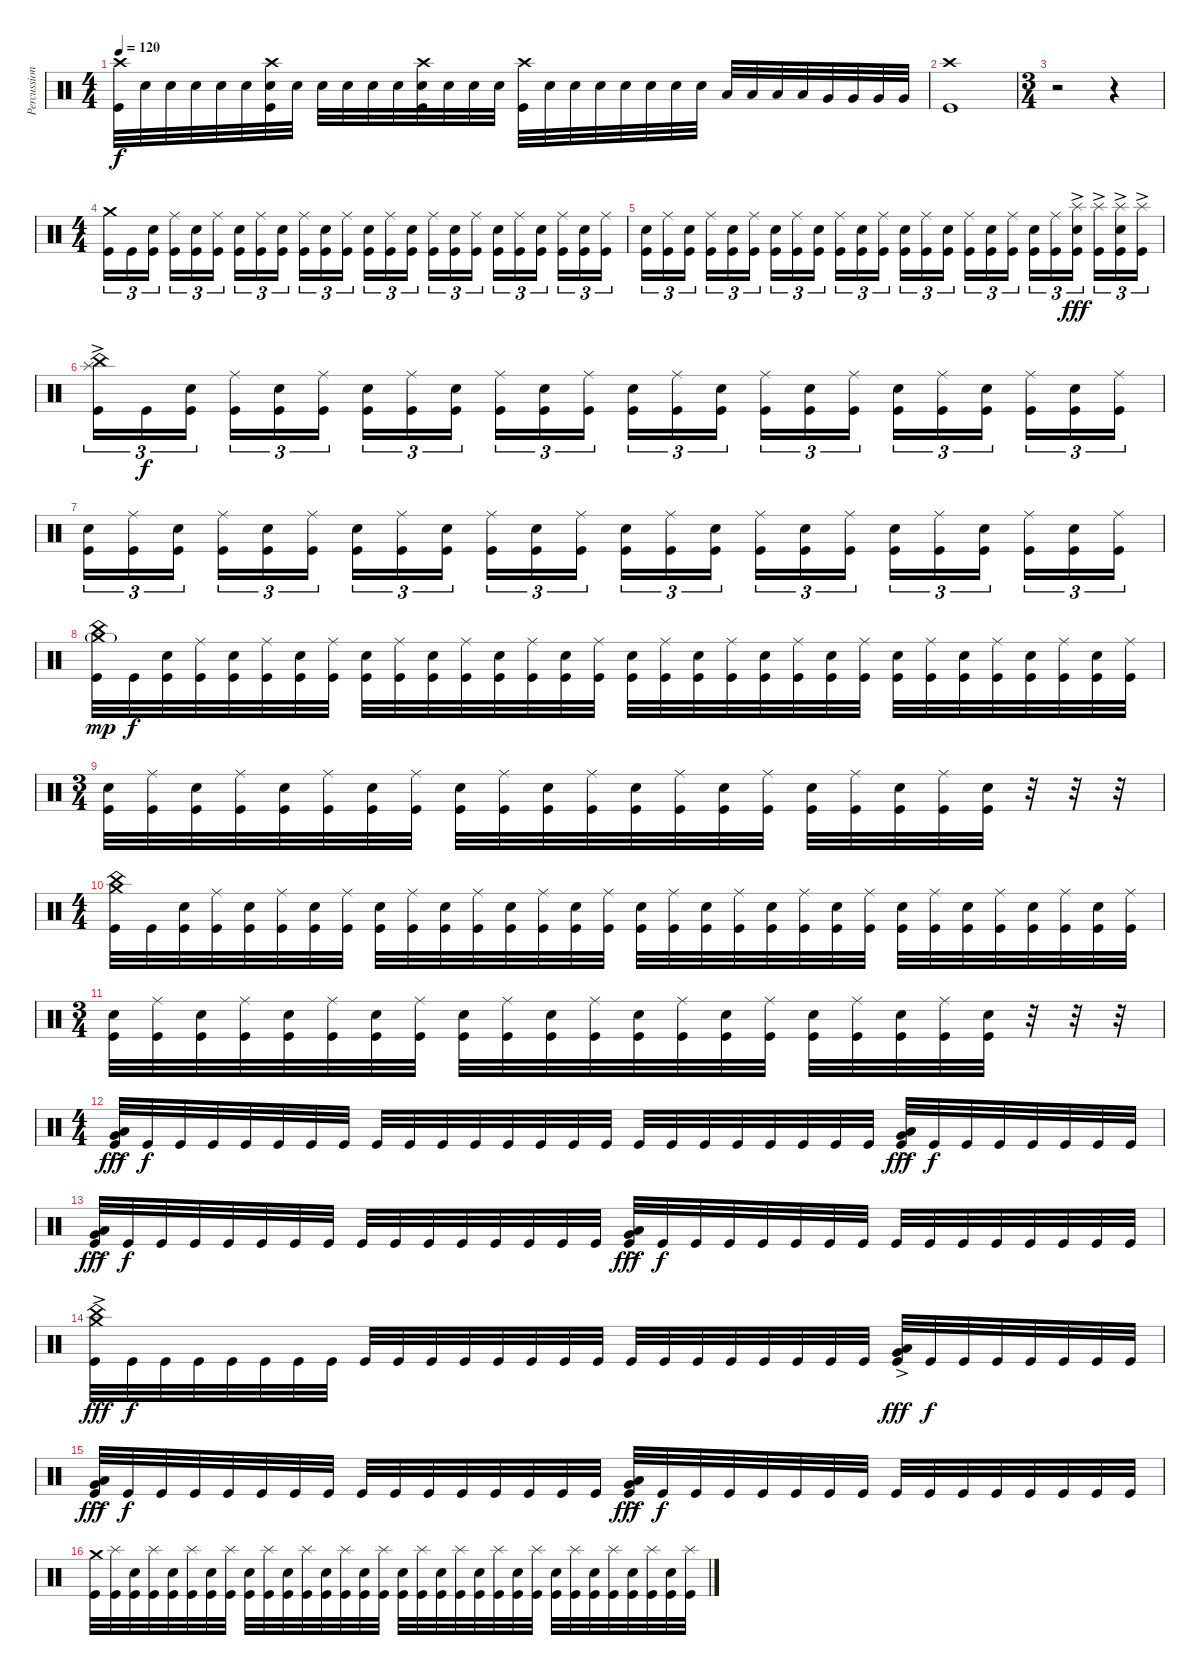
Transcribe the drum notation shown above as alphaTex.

\track ("Percussion" "Percussion") {instrument percussion}
\staff {score}
\articulation defaults
\ts (4 4)
\tempo 120
\clef neutral
\ks c
("Crash high (hit)" "Kick (hit)").32{dy f} "Electric Snare (hit)".32 "Electric Snare (hit)".32 "Electric Snare (hit)".32 "Electric Snare (hit)".32 "Electric Snare (hit)".32 ("Crash high (hit)" "Electric Snare (hit)" "Kick (hit)").32 "Electric Snare (hit)".32 "Electric Snare (hit)".32 "Electric Snare (hit)".32 "Electric Snare (hit)".32 "Electric Snare (hit)".32 ("Crash high (hit)" "Electric Snare (hit)" "Kick (hit)").32 "Electric Snare (hit)".32 "Electric Snare (hit)".32 "Electric Snare (hit)".32 ("Crash high (hit)" "Kick (hit)").32 "Electric Snare (hit)".32 "Electric Snare (hit)".32 "Electric Snare (hit)".32 "Electric Snare (hit)".32 "Electric Snare (hit)".32 "Electric Snare (hit)".32 "Electric Snare (hit)".32 "Low Tom (hit)".32 "Low Tom (hit)".32 "Low Tom (hit)".32 "Low Tom (hit)".32 "Very Low Tom (hit)".32 "Very Low Tom (hit)".32 "Very Low Tom (hit)".32 "Very Low Tom (hit)".32 |
("Crash high (hit)" "Kick (hit)").1 |
\ts (3 4)
r.2 r.4 |
\ts (4 4)
("Crash medium (hit)" "Kick (hit)").16{tu (3 2)} "Kick (hit)".16{tu (3 2)} ("Electric Snare (hit)" "Kick (hit)").16{tu (3 2)} ("Ride (middle)" "Kick (hit)").16{tu (3 2)} ("Electric Snare (hit)" "Kick (hit)").16{tu (3 2)} ("Ride (middle)" "Kick (hit)").16{tu (3 2)} ("Electric Snare (hit)" "Kick (hit)").16{tu (3 2)} ("Ride (middle)" "Kick (hit)").16{tu (3 2)} ("Electric Snare (hit)" "Kick (hit)").16{tu (3 2)} ("Ride (middle)" "Kick (hit)").16{tu (3 2)} ("Electric Snare (hit)" "Kick (hit)").16{tu (3 2)} ("Ride (middle)" "Kick (hit)").16{tu (3 2)} ("Electric Snare (hit)" "Kick (hit)").16{tu (3 2)} ("Ride (middle)" "Kick (hit)").16{tu (3 2)} ("Electric Snare (hit)" "Kick (hit)").16{tu (3 2)} ("Ride (middle)" "Kick (hit)").16{tu (3 2)} ("Electric Snare (hit)" "Kick (hit)").16{tu (3 2)} ("Ride (middle)" "Kick (hit)").16{tu (3 2)} ("Electric Snare (hit)" "Kick (hit)").16{tu (3 2)} ("Ride (middle)" "Kick (hit)").16{tu (3 2)} ("Electric Snare (hit)" "Kick (hit)").16{tu (3 2)} ("Ride (middle)" "Kick (hit)").16{tu (3 2)} ("Electric Snare (hit)" "Kick (hit)").16{tu (3 2)} ("Ride (middle)" "Kick (hit)").16{tu (3 2)} |
("Electric Snare (hit)" "Kick (hit)").16{tu (3 2)} ("Ride (middle)" "Kick (hit)").16{tu (3 2)} ("Electric Snare (hit)" "Kick (hit)").16{tu (3 2)} ("Ride (middle)" "Kick (hit)").16{tu (3 2)} ("Electric Snare (hit)" "Kick (hit)").16{tu (3 2)} ("Ride (middle)" "Kick (hit)").16{tu (3 2)} ("Electric Snare (hit)" "Kick (hit)").16{tu (3 2)} ("Ride (middle)" "Kick (hit)").16{tu (3 2)} ("Electric Snare (hit)" "Kick (hit)").16{tu (3 2)} ("Ride (middle)" "Kick (hit)").16{tu (3 2)} ("Electric Snare (hit)" "Kick (hit)").16{tu (3 2)} ("Ride (middle)" "Kick (hit)").16{tu (3 2)} ("Electric Snare (hit)" "Kick (hit)").16{tu (3 2)} ("Ride (middle)" "Kick (hit)").16{tu (3 2)} ("Electric Snare (hit)" "Kick (hit)").16{tu (3 2)} ("Ride (middle)" "Kick (hit)").16{tu (3 2)} ("Electric Snare (hit)" "Kick (hit)").16{tu (3 2)} ("Ride (middle)" "Kick (hit)").16{tu (3 2)} ("Electric Snare (hit)" "Kick (hit)").16{tu (3 2)} ("Ride (middle)" "Kick (hit)").16{tu (3 2)} ("Splash (hit)"{ac} "Electric Snare (hit)" "Kick (hit)").16{tu (3 2) dy fff} ("Splash (hit)"{ac} "Kick (hit)").16{tu (3 2)} ("Splash (hit)"{ac} "Electric Snare (hit)" "Kick (hit)").16{tu (3 2)} ("Splash (hit)"{ac} "Kick (hit)").16{tu (3 2)} |
("China (hit)"{ac} "Splash (hit)"{ac} "Kick (hit)").16{tu (3 2)} "Kick (hit)".16{tu (3 2) dy f} ("Electric Snare (hit)" "Kick (hit)").16{tu (3 2)} ("Ride (middle)" "Kick (hit)").16{tu (3 2)} ("Electric Snare (hit)" "Kick (hit)").16{tu (3 2)} ("Ride (middle)" "Kick (hit)").16{tu (3 2)} ("Electric Snare (hit)" "Kick (hit)").16{tu (3 2)} ("Ride (middle)" "Kick (hit)").16{tu (3 2)} ("Electric Snare (hit)" "Kick (hit)").16{tu (3 2)} ("Ride (middle)" "Kick (hit)").16{tu (3 2)} ("Electric Snare (hit)" "Kick (hit)").16{tu (3 2)} ("Ride (middle)" "Kick (hit)").16{tu (3 2)} ("Electric Snare (hit)" "Kick (hit)").16{tu (3 2)} ("Ride (middle)" "Kick (hit)").16{tu (3 2)} ("Electric Snare (hit)" "Kick (hit)").16{tu (3 2)} ("Ride (middle)" "Kick (hit)").16{tu (3 2)} ("Electric Snare (hit)" "Kick (hit)").16{tu (3 2)} ("Ride (middle)" "Kick (hit)").16{tu (3 2)} ("Electric Snare (hit)" "Kick (hit)").16{tu (3 2)} ("Ride (middle)" "Kick (hit)").16{tu (3 2)} ("Electric Snare (hit)" "Kick (hit)").16{tu (3 2)} ("Ride (middle)" "Kick (hit)").16{tu (3 2)} ("Electric Snare (hit)" "Kick (hit)").16{tu (3 2)} ("Ride (middle)" "Kick (hit)").16{tu (3 2)} |
("Electric Snare (hit)" "Kick (hit)").16{tu (3 2)} ("Ride (middle)" "Kick (hit)").16{tu (3 2)} ("Electric Snare (hit)" "Kick (hit)").16{tu (3 2)} ("Ride (middle)" "Kick (hit)").16{tu (3 2)} ("Electric Snare (hit)" "Kick (hit)").16{tu (3 2)} ("Ride (middle)" "Kick (hit)").16{tu (3 2)} ("Electric Snare (hit)" "Kick (hit)").16{tu (3 2)} ("Ride (middle)" "Kick (hit)").16{tu (3 2)} ("Electric Snare (hit)" "Kick (hit)").16{tu (3 2)} ("Ride (middle)" "Kick (hit)").16{tu (3 2)} ("Electric Snare (hit)" "Kick (hit)").16{tu (3 2)} ("Ride (middle)" "Kick (hit)").16{tu (3 2)} ("Electric Snare (hit)" "Kick (hit)").16{tu (3 2)} ("Ride (middle)" "Kick (hit)").16{tu (3 2)} ("Electric Snare (hit)" "Kick (hit)").16{tu (3 2)} ("Ride (middle)" "Kick (hit)").16{tu (3 2)} ("Electric Snare (hit)" "Kick (hit)").16{tu (3 2)} ("Ride (middle)" "Kick (hit)").16{tu (3 2)} ("Electric Snare (hit)" "Kick (hit)").16{tu (3 2)} ("Ride (middle)" "Kick (hit)").16{tu (3 2)} ("Electric Snare (hit)" "Kick (hit)").16{tu (3 2)} ("Ride (middle)" "Kick (hit)").16{tu (3 2)} ("Electric Snare (hit)" "Kick (hit)").16{tu (3 2)} ("Ride (middle)" "Kick (hit)").16{tu (3 2)} |
("Crash medium (hit)"{g} "China (hit)" "Kick (hit)").32{dy mp} "Kick (hit)".32{dy f} ("Electric Snare (hit)" "Kick (hit)").32 ("Ride (middle)" "Kick (hit)").32 ("Electric Snare (hit)" "Kick (hit)").32 ("Ride (middle)" "Kick (hit)").32 ("Electric Snare (hit)" "Kick (hit)").32 ("Ride (middle)" "Kick (hit)").32 ("Electric Snare (hit)" "Kick (hit)").32 ("Ride (middle)" "Kick (hit)").32 ("Electric Snare (hit)" "Kick (hit)").32 ("Ride (middle)" "Kick (hit)").32 ("Electric Snare (hit)" "Kick (hit)").32 ("Ride (middle)" "Kick (hit)").32 ("Electric Snare (hit)" "Kick (hit)").32 ("Ride (middle)" "Kick (hit)").32 ("Electric Snare (hit)" "Kick (hit)").32 ("Ride (middle)" "Kick (hit)").32 ("Electric Snare (hit)" "Kick (hit)").32 ("Ride (middle)" "Kick (hit)").32 ("Electric Snare (hit)" "Kick (hit)").32 ("Ride (middle)" "Kick (hit)").32 ("Electric Snare (hit)" "Kick (hit)").32 ("Ride (middle)" "Kick (hit)").32 ("Electric Snare (hit)" "Kick (hit)").32 ("Ride (middle)" "Kick (hit)").32 ("Electric Snare (hit)" "Kick (hit)").32 ("Ride (middle)" "Kick (hit)").32 ("Electric Snare (hit)" "Kick (hit)").32 ("Ride (middle)" "Kick (hit)").32 ("Electric Snare (hit)" "Kick (hit)").32 ("Ride (middle)" "Kick (hit)").32 |
\ts (3 4)
("Electric Snare (hit)" "Kick (hit)").32 ("Ride (middle)" "Kick (hit)").32 ("Electric Snare (hit)" "Kick (hit)").32 ("Ride (middle)" "Kick (hit)").32 ("Electric Snare (hit)" "Kick (hit)").32 ("Ride (middle)" "Kick (hit)").32 ("Electric Snare (hit)" "Kick (hit)").32 ("Ride (middle)" "Kick (hit)").32 ("Electric Snare (hit)" "Kick (hit)").32 ("Ride (middle)" "Kick (hit)").32 ("Electric Snare (hit)" "Kick (hit)").32 ("Ride (middle)" "Kick (hit)").32 ("Electric Snare (hit)" "Kick (hit)").32 ("Ride (middle)" "Kick (hit)").32 ("Electric Snare (hit)" "Kick (hit)").32 ("Ride (middle)" "Kick (hit)").32 ("Electric Snare (hit)" "Kick (hit)").32 ("Ride (middle)" "Kick (hit)").32 ("Electric Snare (hit)" "Kick (hit)").32 ("Ride (middle)" "Kick (hit)").32 ("Electric Snare (hit)" "Kick (hit)").32 r.32 r.32 r.32 |
\ts (4 4)
("Crash medium (hit)" "China (hit)" "Kick (hit)").32 "Kick (hit)".32 ("Electric Snare (hit)" "Kick (hit)").32 ("Ride (middle)" "Kick (hit)").32 ("Electric Snare (hit)" "Kick (hit)").32 ("Ride (middle)" "Kick (hit)").32 ("Electric Snare (hit)" "Kick (hit)").32 ("Ride (middle)" "Kick (hit)").32 ("Electric Snare (hit)" "Kick (hit)").32 ("Ride (middle)" "Kick (hit)").32 ("Electric Snare (hit)" "Kick (hit)").32 ("Ride (middle)" "Kick (hit)").32 ("Electric Snare (hit)" "Kick (hit)").32 ("Ride (middle)" "Kick (hit)").32 ("Electric Snare (hit)" "Kick (hit)").32 ("Ride (middle)" "Kick (hit)").32 ("Electric Snare (hit)" "Kick (hit)").32 ("Ride (middle)" "Kick (hit)").32 ("Electric Snare (hit)" "Kick (hit)").32 ("Ride (middle)" "Kick (hit)").32 ("Electric Snare (hit)" "Kick (hit)").32 ("Ride (middle)" "Kick (hit)").32 ("Electric Snare (hit)" "Kick (hit)").32 ("Ride (middle)" "Kick (hit)").32 ("Electric Snare (hit)" "Kick (hit)").32 ("Ride (middle)" "Kick (hit)").32 ("Electric Snare (hit)" "Kick (hit)").32 ("Ride (middle)" "Kick (hit)").32 ("Electric Snare (hit)" "Kick (hit)").32 ("Ride (middle)" "Kick (hit)").32 ("Electric Snare (hit)" "Kick (hit)").32 ("Ride (middle)" "Kick (hit)").32 |
\ts (3 4)
("Electric Snare (hit)" "Kick (hit)").32 ("Ride (middle)" "Kick (hit)").32 ("Electric Snare (hit)" "Kick (hit)").32 ("Ride (middle)" "Kick (hit)").32 ("Electric Snare (hit)" "Kick (hit)").32 ("Ride (middle)" "Kick (hit)").32 ("Electric Snare (hit)" "Kick (hit)").32 ("Ride (middle)" "Kick (hit)").32 ("Electric Snare (hit)" "Kick (hit)").32 ("Ride (middle)" "Kick (hit)").32 ("Electric Snare (hit)" "Kick (hit)").32 ("Ride (middle)" "Kick (hit)").32 ("Electric Snare (hit)" "Kick (hit)").32 ("Ride (middle)" "Kick (hit)").32 ("Electric Snare (hit)" "Kick (hit)").32 ("Ride (middle)" "Kick (hit)").32 ("Electric Snare (hit)" "Kick (hit)").32 ("Ride (middle)" "Kick (hit)").32 ("Electric Snare (hit)" "Kick (hit)").32 ("Ride (middle)" "Kick (hit)").32 ("Electric Snare (hit)" "Kick (hit)").32 r.32 r.32 r.32 |
\ts (4 4)
("Low Floor Tom (hit)"{ac} "Very Low Tom (hit)"{ac} "Kick (hit)"{ac}).32{dy fff} "Kick (hit)".32{dy f} "Kick (hit)".32 "Kick (hit)".32 "Kick (hit)".32 "Kick (hit)".32 "Kick (hit)".32 "Kick (hit)".32 "Kick (hit)".32 "Kick (hit)".32 "Kick (hit)".32 "Kick (hit)".32 "Kick (hit)".32 "Kick (hit)".32 "Kick (hit)".32 "Kick (hit)".32 "Kick (hit)".32 "Kick (hit)".32 "Kick (hit)".32 "Kick (hit)".32 "Kick (hit)".32 "Kick (hit)".32 "Kick (hit)".32 "Kick (hit)".32 ("Low Floor Tom (hit)"{ac} "Very Low Tom (hit)"{ac} "Kick (hit)"{ac}).32{dy fff} "Kick (hit)".32{dy f} "Kick (hit)".32 "Kick (hit)".32 "Kick (hit)".32 "Kick (hit)".32 "Kick (hit)".32 "Kick (hit)".32 |
("Low Floor Tom (hit)"{ac} "Very Low Tom (hit)"{ac} "Kick (hit)"{ac}).32{dy fff} "Kick (hit)".32{dy f} "Kick (hit)".32 "Kick (hit)".32 "Kick (hit)".32 "Kick (hit)".32 "Kick (hit)".32 "Kick (hit)".32 "Kick (hit)".32 "Kick (hit)".32 "Kick (hit)".32 "Kick (hit)".32 "Kick (hit)".32 "Kick (hit)".32 "Kick (hit)".32 "Kick (hit)".32 ("Very Low Tom (hit)"{ac} "Low Floor Tom (hit)"{ac} "Kick (hit)"{ac}).32{dy fff} "Kick (hit)".32{dy f} "Kick (hit)".32 "Kick (hit)".32 "Kick (hit)".32 "Kick (hit)".32 "Kick (hit)".32 "Kick (hit)".32 "Kick (hit)".32 "Kick (hit)".32 "Kick (hit)".32 "Kick (hit)".32 "Kick (hit)".32 "Kick (hit)".32 "Kick (hit)".32 "Kick (hit)".32 |
("China (hit)"{ac} "Crash medium (hit)"{ac} "Kick (hit)"{ac}).32{dy fff} "Kick (hit)".32{dy f} "Kick (hit)".32 "Kick (hit)".32 "Kick (hit)".32 "Kick (hit)".32 "Kick (hit)".32 "Kick (hit)".32 "Kick (hit)".32 "Kick (hit)".32 "Kick (hit)".32 "Kick (hit)".32 "Kick (hit)".32 "Kick (hit)".32 "Kick (hit)".32 "Kick (hit)".32 "Kick (hit)".32 "Kick (hit)".32 "Kick (hit)".32 "Kick (hit)".32 "Kick (hit)".32 "Kick (hit)".32 "Kick (hit)".32 "Kick (hit)".32 ("Low Floor Tom (hit)"{ac} "Very Low Tom (hit)"{ac} "Kick (hit)"{ac}).32{dy fff} "Kick (hit)".32{dy f} "Kick (hit)".32 "Kick (hit)".32 "Kick (hit)".32 "Kick (hit)".32 "Kick (hit)".32 "Kick (hit)".32 |
("Low Floor Tom (hit)"{ac} "Very Low Tom (hit)"{ac} "Kick (hit)"{ac}).32{dy fff} "Kick (hit)".32{dy f} "Kick (hit)".32 "Kick (hit)".32 "Kick (hit)".32 "Kick (hit)".32 "Kick (hit)".32 "Kick (hit)".32 "Kick (hit)".32 "Kick (hit)".32 "Kick (hit)".32 "Kick (hit)".32 "Kick (hit)".32 "Kick (hit)".32 "Kick (hit)".32 "Kick (hit)".32 ("Very Low Tom (hit)"{ac} "Low Floor Tom (hit)"{ac} "Kick (hit)"{ac}).32{dy fff} "Kick (hit)".32{dy f} "Kick (hit)".32 "Kick (hit)".32 "Kick (hit)".32 "Kick (hit)".32 "Kick (hit)".32 "Kick (hit)".32 "Kick (hit)".32 "Kick (hit)".32 "Kick (hit)".32 "Kick (hit)".32 "Kick (hit)".32 "Kick (hit)".32 "Kick (hit)".32 "Kick (hit)".32 |
("Crash medium (hit)" "Kick (hit)").32 ("Splash (hit)" "Kick (hit)").32 ("Electric Snare (hit)" "Kick (hit)").32 ("Splash (hit)" "Kick (hit)").32 ("Electric Snare (hit)" "Kick (hit)").32 ("Splash (hit)" "Kick (hit)").32 ("Electric Snare (hit)" "Kick (hit)").32 ("Splash (hit)" "Kick (hit)").32 ("Electric Snare (hit)" "Kick (hit)").32 ("Splash (hit)" "Kick (hit)").32 ("Electric Snare (hit)" "Kick (hit)").32 ("Splash (hit)" "Kick (hit)").32 ("Electric Snare (hit)" "Kick (hit)").32 ("Splash (hit)" "Kick (hit)").32 ("Electric Snare (hit)" "Kick (hit)").32 ("Splash (hit)" "Kick (hit)").32 ("Electric Snare (hit)" "Kick (hit)").32 ("Splash (hit)" "Kick (hit)").32 ("Electric Snare (hit)" "Kick (hit)").32 ("Splash (hit)" "Kick (hit)").32 ("Electric Snare (hit)" "Kick (hit)").32 ("Splash (hit)" "Kick (hit)").32 ("Electric Snare (hit)" "Kick (hit)").32 ("Splash (hit)" "Kick (hit)").32 ("Electric Snare (hit)" "Kick (hit)").32 ("Splash (hit)" "Kick (hit)").32 ("Electric Snare (hit)" "Kick (hit)").32 ("Splash (hit)" "Kick (hit)").32 ("Electric Snare (hit)" "Kick (hit)").32 ("Splash (hit)" "Kick (hit)").32 ("Electric Snare (hit)" "Kick (hit)").32 ("Splash (hit)" "Kick (hit)").32
